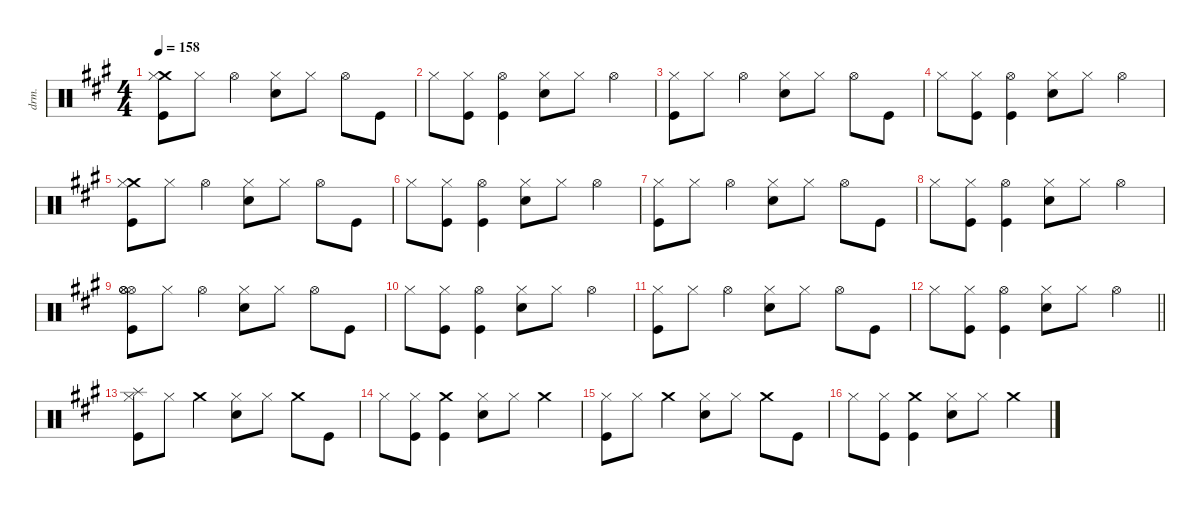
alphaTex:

\defaultSystemsLayout 4
\hideDynamics
\bracketExtendMode groupsimilarinstruments
\otherSystemsTrackNameOrientation horizontal
\track ("Drums" "drm.") {defaultSystemsLayout 4 instrument percussion}
\staff {score}
\articulation defaults
\ts (4 4)
\tempo 158
\clef neutral
\ks f#minor
("Crash medium (hit)"{acc forcenatural} "Hi-Hat (closed)"{acc forcenatural} "Kick (hit)"{acc forcenatural}).8{dy f beam Down} "Hi-Hat (closed)"{acc forcenatural}.8{dy mf beam Down} "Hi-Hat (open)"{acc forcenatural}.4{dy f beam Down} ("Hi-Hat (closed)"{acc forcenatural} "Snare (hit) 2"{acc forcenatural}).8{beam Down} "Hi-Hat (closed)"{acc forcenatural}.8{dy mf beam Down} "Hi-Hat (open)"{acc forcenatural}.8{dy f beam Down} "Kick (hit)"{acc forcenatural}.8{beam Down} |
"Hi-Hat (closed)"{acc forcenatural}.8{beam Down} ("Hi-Hat (closed)"{acc forcenatural} "Kick (hit)"{acc forcenatural}).8{dy mf beam Down} ("Hi-Hat (open)"{acc forcenatural} "Kick (hit)"{acc forcenatural}).4{dy f beam Down} ("Hi-Hat (closed)"{acc forcenatural} "Snare (hit) 2"{acc forcenatural}).8{beam Down} "Hi-Hat (closed)"{acc forcenatural}.8{dy mf beam Down} "Hi-Hat (open)"{acc forcenatural}.4{dy f beam Down} |
("Hi-Hat (closed)"{acc forcenatural} "Kick (hit)"{acc forcenatural}).8{beam Down} "Hi-Hat (closed)"{acc forcenatural}.8{dy mf beam Down} "Hi-Hat (open)"{acc forcenatural}.4{dy f beam Down} ("Hi-Hat (closed)"{acc forcenatural} "Snare (hit) 2"{acc forcenatural}).8{beam Down} "Hi-Hat (closed)"{acc forcenatural}.8{dy mf beam Down} "Hi-Hat (open)"{acc forcenatural}.8{dy f beam Down} "Kick (hit)"{acc forcenatural}.8{beam Down} |
"Hi-Hat (closed)"{acc forcenatural}.8{beam Down} ("Hi-Hat (closed)"{acc forcenatural} "Kick (hit)"{acc forcenatural}).8{dy mf beam Down} ("Hi-Hat (open)"{acc forcenatural} "Kick (hit)"{acc forcenatural}).4{dy f beam Down} ("Hi-Hat (closed)"{acc forcenatural} "Snare (hit) 2"{acc forcenatural}).8{beam Down} "Hi-Hat (closed)"{acc forcenatural}.8{dy mf beam Down} "Hi-Hat (open)"{acc forcenatural}.4{dy f beam Down} |
("Crash medium (hit)"{acc forcenatural} "Hi-Hat (closed)"{acc forcenatural} "Kick (hit)"{acc forcenatural}).8{beam Down} "Hi-Hat (closed)"{acc forcenatural}.8{dy mf beam Down} "Hi-Hat (open)"{acc forcenatural}.4{dy f beam Down} ("Hi-Hat (closed)"{acc forcenatural} "Snare (hit) 2"{acc forcenatural}).8{beam Down} "Hi-Hat (closed)"{acc forcenatural}.8{dy mf beam Down} "Hi-Hat (open)"{acc forcenatural}.8{dy f beam Down} "Kick (hit)"{acc forcenatural}.8{beam Down} |
"Hi-Hat (closed)"{acc forcenatural}.8{beam Down} ("Hi-Hat (closed)"{acc forcenatural} "Kick (hit)"{acc forcenatural}).8{dy mf beam Down} ("Hi-Hat (open)"{acc forcenatural} "Kick (hit)"{acc forcenatural}).4{dy f beam Down} ("Hi-Hat (closed)"{acc forcenatural} "Snare (hit) 2"{acc forcenatural}).8{beam Down} "Hi-Hat (closed)"{acc forcenatural}.8{dy mf beam Down} "Hi-Hat (open)"{acc forcenatural}.4{dy f beam Down} |
("Hi-Hat (closed)"{acc forcenatural} "Kick (hit)"{acc forcenatural}).8{beam Down} "Hi-Hat (closed)"{acc forcenatural}.8{dy mf beam Down} "Hi-Hat (open)"{acc forcenatural}.4{dy f beam Down} ("Hi-Hat (closed)"{acc forcenatural} "Snare (hit) 2"{acc forcenatural}).8{beam Down} "Hi-Hat (closed)"{acc forcenatural}.8{dy mf beam Down} "Hi-Hat (open)"{acc forcenatural}.8{dy f beam Down} "Kick (hit)"{acc forcenatural}.8{beam Down} |
"Hi-Hat (closed)"{acc forcenatural}.8{beam Down} ("Hi-Hat (closed)"{acc forcenatural} "Kick (hit)"{acc forcenatural}).8{dy mf beam Down} ("Hi-Hat (open)"{acc forcenatural} "Kick (hit)"{acc forcenatural}).4{dy f beam Down} ("Hi-Hat (closed)"{acc forcenatural} "Snare (hit) 2"{acc forcenatural}).8{beam Down} "Hi-Hat (closed)"{acc forcenatural}.8{dy mf beam Down} "Hi-Hat (open)"{acc forcenatural}.4{dy f beam Down} |
("Hi-Hat (open)"{acc forcenatural} "Hi-Hat (open)"{acc forcenatural} "Hi-Hat (open)"{acc forcenatural} "Kick (hit)"{acc forcenatural}).8{dy mp beam Down} "Hi-Hat (closed)"{acc forcenatural}.8{dy f beam Down} "Hi-Hat (open)"{acc forcenatural}.4{beam Down} ("Hi-Hat (closed)"{acc forcenatural} "Snare (hit) 2"{acc forcenatural}).8{beam Down} "Hi-Hat (closed)"{acc forcenatural}.8{dy mf beam Down} "Hi-Hat (open)"{acc forcenatural}.8{dy f beam Down} "Kick (hit)"{acc forcenatural}.8{beam Down} |
"Hi-Hat (closed)"{acc forcenatural}.8{beam Down} ("Hi-Hat (closed)"{acc forcenatural} "Kick (hit)"{acc forcenatural}).8{dy mf beam Down} ("Hi-Hat (open)"{acc forcenatural} "Kick (hit)"{acc forcenatural}).4{dy f beam Down} ("Hi-Hat (closed)"{acc forcenatural} "Snare (hit) 2"{acc forcenatural}).8{beam Down} "Hi-Hat (closed)"{acc forcenatural}.8{dy mf beam Down} "Hi-Hat (open)"{acc forcenatural}.4{dy f beam Down} |
("Hi-Hat (closed)"{acc forcenatural} "Kick (hit)"{acc forcenatural}).8{beam Down} "Hi-Hat (closed)"{acc forcenatural}.8{dy mf beam Down} "Hi-Hat (open)"{acc forcenatural}.4{dy f beam Down} ("Hi-Hat (closed)"{acc forcenatural} "Snare (hit) 2"{acc forcenatural}).8{beam Down} "Hi-Hat (closed)"{acc forcenatural}.8{dy mf beam Down} "Hi-Hat (open)"{acc forcenatural}.8{dy f beam Down} "Kick (hit)"{acc forcenatural}.8{beam Down} |
\barLineRight lightlight "Hi-Hat (closed)"{acc forcenatural}.8{beam Down}
("Hi-Hat (closed)"{acc forcenatural} "Kick (hit)"{acc forcenatural}).8{dy mf beam Down} ("Hi-Hat (open)"{acc forcenatural} "Kick (hit)"{acc forcenatural}).4{dy f beam Down} ("Hi-Hat (closed)"{acc forcenatural} "Snare (hit) 2"{acc forcenatural}).8{beam Down} "Hi-Hat (closed)"{acc forcenatural}.8{dy mf beam Down} "Hi-Hat (open)"{acc forcenatural}.4{dy f beam Down} |
("Splash (hit)"{acc forcenatural} "Hi-Hat (closed)"{acc forcenatural} "Kick (hit)"{acc forcenatural}).8{beam Down} "Hi-Hat (closed)"{acc forcenatural}.8{dy mp beam Down} "Crash medium (hit)"{acc forcenatural}.4{dy f beam Down} ("Hi-Hat (closed)"{acc forcenatural} "Snare (hit) 2"{acc forcenatural}).8{dy mp beam Down} "Hi-Hat (closed)"{acc forcenatural}.8{beam Down} "Crash medium (hit)"{acc forcenatural}.8{dy f beam Down} "Kick (hit)"{acc forcenatural}.8{beam Down} |
"Hi-Hat (closed)"{acc forcenatural}.8{dy mp beam Down} ("Hi-Hat (closed)"{acc forcenatural} "Kick (hit)"{acc forcenatural}).8{beam Down} ("Crash medium (hit)"{acc forcenatural} "Kick (hit)"{acc forcenatural}).4{dy f beam Down} ("Hi-Hat (closed)"{acc forcenatural} "Snare (hit) 2"{acc forcenatural}).8{dy mp beam Down} "Hi-Hat (closed)"{acc forcenatural}.8{beam Down} "Crash medium (hit)"{acc forcenatural}.4{dy f beam Down} |
("Hi-Hat (closed)"{acc forcenatural} "Kick (hit)"{acc forcenatural}).8{dy mp beam Down} "Hi-Hat (closed)"{acc forcenatural}.8{beam Down} "Crash medium (hit)"{acc forcenatural}.4{dy f beam Down} ("Hi-Hat (closed)"{acc forcenatural} "Snare (hit) 2"{acc forcenatural}).8{dy mp beam Down} "Hi-Hat (closed)"{acc forcenatural}.8{beam Down} "Crash medium (hit)"{acc forcenatural}.8{dy f beam Down} "Kick (hit)"{acc forcenatural}.8{beam Down} |
"Hi-Hat (closed)"{acc forcenatural}.8{dy mp beam Down} ("Hi-Hat (closed)"{acc forcenatural} "Kick (hit)"{acc forcenatural}).8{beam Down} ("Crash medium (hit)"{acc forcenatural} "Kick (hit)"{acc forcenatural}).4{dy f beam Down} ("Hi-Hat (closed)"{acc forcenatural} "Snare (hit) 2"{acc forcenatural}).8{dy mp beam Down} "Hi-Hat (closed)"{acc forcenatural}.8{beam Down} "Crash medium (hit)"{acc forcenatural}.4{dy f beam Down}
